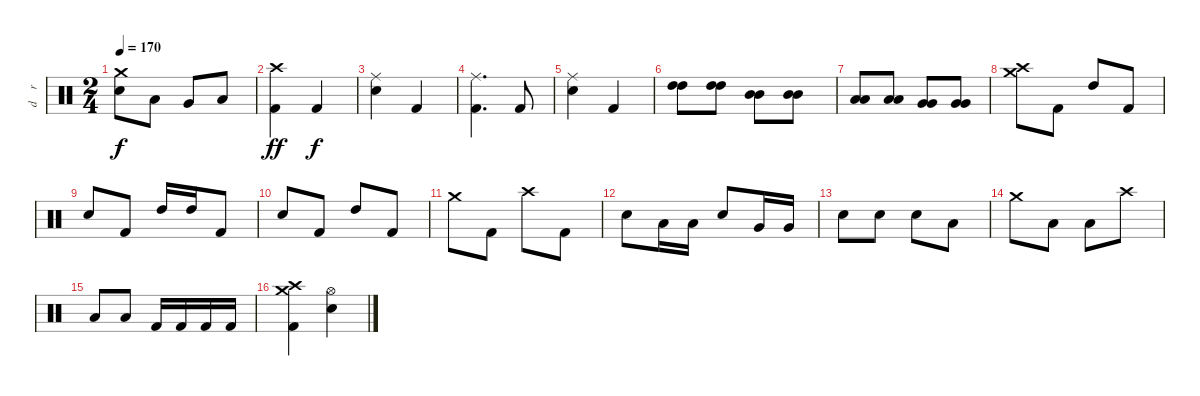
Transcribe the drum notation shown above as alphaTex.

\track ("d    r     u     m    s" "d    r    ") {instrument percussion}
\staff {score}
\articulation defaults
\ts (2 4)
\tempo 170
\clef neutral
\ks c
("Crash medium (hit)" "Electric Snare (hit)").8{dy f} "Low Tom (hit)".8 "Very Low Tom (hit)".8 "Low Floor Tom (hit)".8 |
("Crash high (hit)" "Kick (hit) 2").4{dy ff} "Kick (hit) 2".4{dy f} |
("Ride (middle)" "Electric Snare (hit)").4 "Kick (hit) 2".4 |
("Ride (middle)" "Kick (hit) 2").4{d} "Kick (hit) 2".8 |
("Ride (middle)" "Electric Snare (hit)").4 "Kick (hit) 2".4 |
("High Tom (hit)" "High Tom (hit)").8 ("High Tom (hit)" "High Tom (hit)").8 ("Mid Tom (hit)" "Mid Tom (hit)").8 ("Mid Tom (hit)" "Mid Tom (hit)").8 |
("Low Tom (hit)" "Low Tom (hit)").8 ("Low Tom (hit)" "Low Tom (hit)").8 ("Very Low Tom (hit)" "Very Low Tom (hit)").8 ("Very Low Tom (hit)" "Very Low Tom (hit)").8 |
("Crash high (hit)" "Crash medium (hit)").8 "Kick (hit) 2".8 "High Tom (hit)".8 "Kick (hit) 2".8 |
"Electric Snare (hit)".8 "Kick (hit) 2".8 "High Tom (hit)".16 "High Tom (hit)".16 "Kick (hit) 2".8 |
"Electric Snare (hit)".8 "Kick (hit) 2".8 "High Tom (hit)".8 "Kick (hit) 2".8 |
"Crash medium (hit)".8 "Kick (hit) 2".8 "Crash high (hit)".8 "Kick (hit) 2".8 |
"Electric Snare (hit)".8 "Low Tom (hit)".16 "Low Tom (hit)".16 "Electric Snare (hit)".8 "Very Low Tom (hit)".16 "Very Low Tom (hit)".16 |
"Electric Snare (hit)".8 "Electric Snare (hit)".8 "Electric Snare (hit)".8 "Low Floor Tom (hit)".8 |
"Crash medium (hit)".8 "Low Floor Tom (hit)".8 "Low Floor Tom (hit)".8 "Crash high (hit)".8 |
"Low Floor Tom (hit)".8 "Low Floor Tom (hit)".8 "Kick (hit) 2".16 "Kick (hit) 2".16 "Kick (hit) 2".16 "Kick (hit) 2".16 |
("Crash high (hit)" "Crash medium (hit)" "Kick (hit) 2").4 ("Hi-Hat (open)" "Electric Snare (hit)").4
